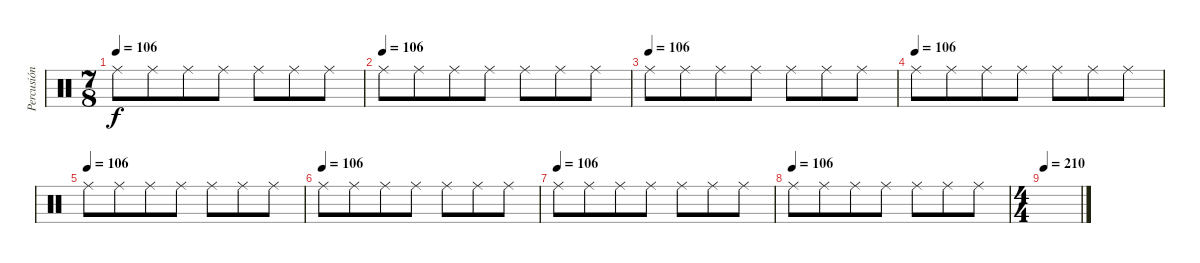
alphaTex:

\track ("Percusión" "Percusión") {instrument percussion}
\staff {score}
\articulation defaults
\ts (7 8)
\tempo 106
\clef neutral
\ks c "Ride (middle)".8{dy f} "Ride (middle)".8 "Ride (middle)".8 "Ride (middle)".8 "Ride (middle)".8 "Ride (middle)".8 "Ride (middle)".8
|
\tempo (106)
"Ride (middle)".8 "Ride (middle)".8 "Ride (middle)".8 "Ride (middle)".8 "Ride (middle)".8 "Ride (middle)".8 "Ride (middle)".8 |
\tempo (106)
"Ride (middle)".8 "Ride (middle)".8 "Ride (middle)".8 "Ride (middle)".8 "Ride (middle)".8 "Ride (middle)".8 "Ride (middle)".8 |
\tempo (106)
"Ride (middle)".8 "Ride (middle)".8 "Ride (middle)".8 "Ride (middle)".8 "Ride (middle)".8 "Ride (middle)".8 "Ride (middle)".8 |
\tempo (106)
"Ride (middle)".8 "Ride (middle)".8 "Ride (middle)".8 "Ride (middle)".8 "Ride (middle)".8 "Ride (middle)".8 "Ride (middle)".8 |
\tempo (106)
"Ride (middle)".8 "Ride (middle)".8 "Ride (middle)".8 "Ride (middle)".8 "Ride (middle)".8 "Ride (middle)".8 "Ride (middle)".8 |
\tempo (106)
"Ride (middle)".8 "Ride (middle)".8 "Ride (middle)".8 "Ride (middle)".8 "Ride (middle)".8 "Ride (middle)".8 "Ride (middle)".8 |
\tempo (106)
"Ride (middle)".8 "Ride (middle)".8 "Ride (middle)".8 "Ride (middle)".8 "Ride (middle)".8 "Ride (middle)".8 "Ride (middle)".8 |
\ts (4 4)
\tempo 210
